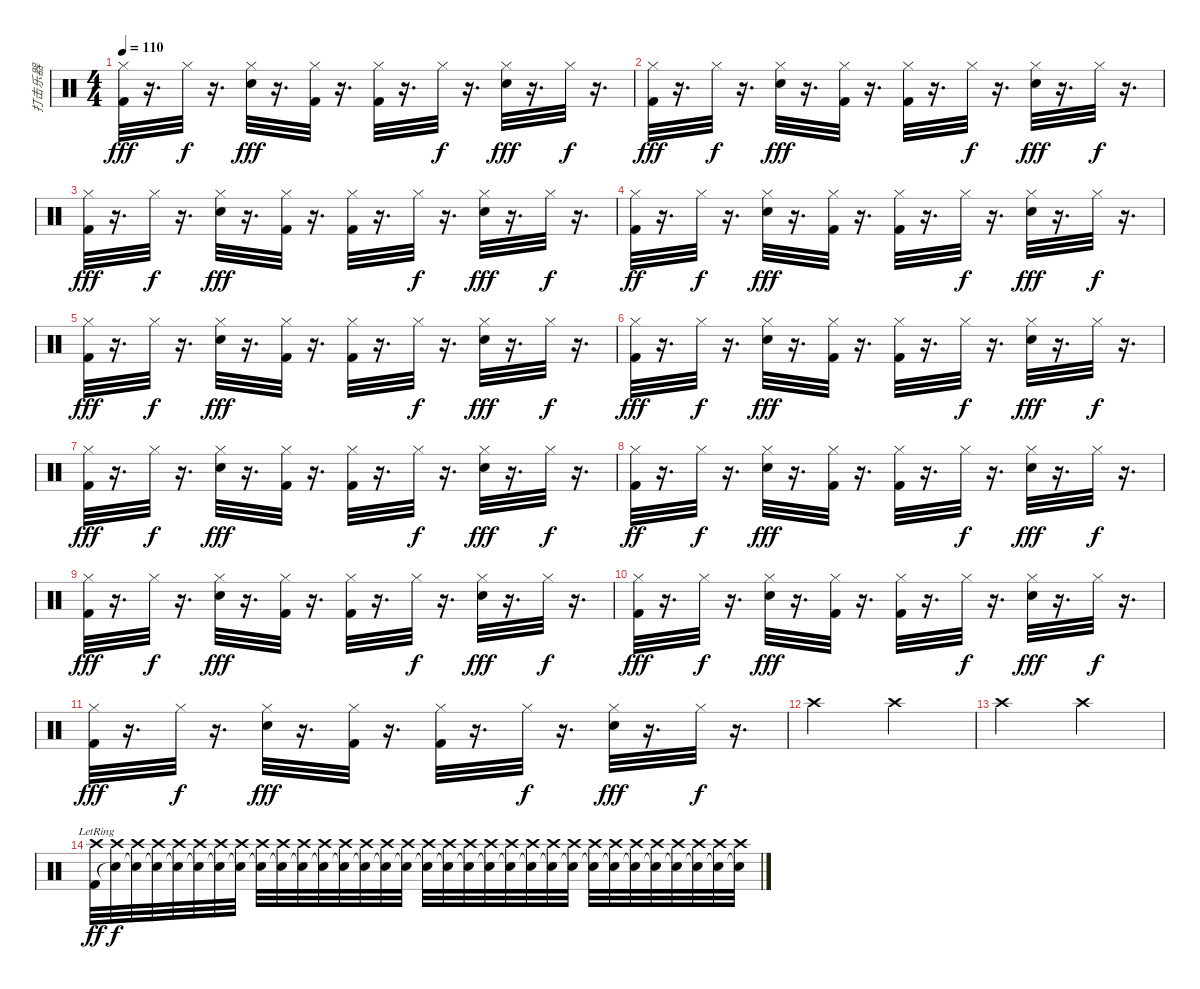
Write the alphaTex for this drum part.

\track ("打击乐器" "打击乐器") {instrument percussion}
\staff {score}
\articulation defaults
\ts (4 4)
\tempo 110
\clef neutral
\ks c
("Kick (hit) 2" "Hi-Hat (closed)").32{dy fff} r.16{d} "Hi-Hat (closed)".32{dy f} r.16{d} ("Hi-Hat (closed)" "Electric Snare (hit)").32{dy fff} r.16{d} ("Kick (hit) 2" "Hi-Hat (closed)").32 r.16{d} ("Kick (hit) 2" "Hi-Hat (closed)").32 r.16{d} "Hi-Hat (closed)".32{dy f} r.16{d} ("Hi-Hat (closed)" "Electric Snare (hit)").32{dy fff} r.16{d} "Hi-Hat (closed)".32{dy f} r.16{d} |
("Kick (hit) 2" "Hi-Hat (closed)").32{dy fff} r.16{d} "Hi-Hat (closed)".32{dy f} r.16{d} ("Hi-Hat (closed)" "Electric Snare (hit)").32{dy fff} r.16{d} ("Kick (hit) 2" "Hi-Hat (closed)").32 r.16{d} ("Kick (hit) 2" "Hi-Hat (closed)").32 r.16{d} "Hi-Hat (closed)".32{dy f} r.16{d} ("Hi-Hat (closed)" "Electric Snare (hit)").32{dy fff} r.16{d} "Hi-Hat (closed)".32{dy f} r.16{d} |
("Kick (hit) 2" "Hi-Hat (closed)").32{dy fff} r.16{d} "Hi-Hat (closed)".32{dy f} r.16{d} ("Hi-Hat (closed)" "Electric Snare (hit)").32{dy fff} r.16{d} ("Kick (hit) 2" "Hi-Hat (closed)").32 r.16{d} ("Kick (hit) 2" "Hi-Hat (closed)").32 r.16{d} "Hi-Hat (closed)".32{dy f} r.16{d} ("Hi-Hat (closed)" "Electric Snare (hit)").32{dy fff} r.16{d} "Hi-Hat (closed)".32{dy f} r.16{d} |
("Kick (hit) 2" "Hi-Hat (closed)").32{dy ff} r.16{d} "Hi-Hat (closed)".32{dy f} r.16{d} ("Hi-Hat (closed)" "Electric Snare (hit)").32{dy fff} r.16{d} ("Kick (hit) 2" "Hi-Hat (closed)").32 r.16{d} ("Kick (hit) 2" "Hi-Hat (closed)").32 r.16{d} "Hi-Hat (closed)".32{dy f} r.16{d} ("Hi-Hat (closed)" "Electric Snare (hit)").32{dy fff} r.16{d} "Hi-Hat (closed)".32{dy f} r.16{d} |
("Kick (hit) 2" "Hi-Hat (closed)").32{dy fff} r.16{d} "Hi-Hat (closed)".32{dy f} r.16{d} ("Hi-Hat (closed)" "Electric Snare (hit)").32{dy fff} r.16{d} ("Kick (hit) 2" "Hi-Hat (closed)").32 r.16{d} ("Kick (hit) 2" "Hi-Hat (closed)").32 r.16{d} "Hi-Hat (closed)".32{dy f} r.16{d} ("Hi-Hat (closed)" "Electric Snare (hit)").32{dy fff} r.16{d} "Hi-Hat (closed)".32{dy f} r.16{d} |
("Kick (hit) 2" "Hi-Hat (closed)").32{dy fff} r.16{d} "Hi-Hat (closed)".32{dy f} r.16{d} ("Hi-Hat (closed)" "Electric Snare (hit)").32{dy fff} r.16{d} ("Kick (hit) 2" "Hi-Hat (closed)").32 r.16{d} ("Kick (hit) 2" "Hi-Hat (closed)").32 r.16{d} "Hi-Hat (closed)".32{dy f} r.16{d} ("Hi-Hat (closed)" "Electric Snare (hit)").32{dy fff} r.16{d} "Hi-Hat (closed)".32{dy f} r.16{d} |
("Kick (hit) 2" "Hi-Hat (closed)").32{dy fff} r.16{d} "Hi-Hat (closed)".32{dy f} r.16{d} ("Hi-Hat (closed)" "Electric Snare (hit)").32{dy fff} r.16{d} ("Kick (hit) 2" "Hi-Hat (closed)").32 r.16{d} ("Kick (hit) 2" "Hi-Hat (closed)").32 r.16{d} "Hi-Hat (closed)".32{dy f} r.16{d} ("Hi-Hat (closed)" "Electric Snare (hit)").32{dy fff} r.16{d} "Hi-Hat (closed)".32{dy f} r.16{d} |
("Kick (hit) 2" "Hi-Hat (closed)").32{dy ff} r.16{d} "Hi-Hat (closed)".32{dy f} r.16{d} ("Hi-Hat (closed)" "Electric Snare (hit)").32{dy fff} r.16{d} ("Kick (hit) 2" "Hi-Hat (closed)").32 r.16{d} ("Kick (hit) 2" "Hi-Hat (closed)").32 r.16{d} "Hi-Hat (closed)".32{dy f} r.16{d} ("Hi-Hat (closed)" "Electric Snare (hit)").32{dy fff} r.16{d} "Hi-Hat (closed)".32{dy f} r.16{d} |
("Kick (hit) 2" "Hi-Hat (closed)").32{dy fff} r.16{d} "Hi-Hat (closed)".32{dy f} r.16{d} ("Hi-Hat (closed)" "Electric Snare (hit)").32{dy fff} r.16{d} ("Kick (hit) 2" "Hi-Hat (closed)").32 r.16{d} ("Kick (hit) 2" "Hi-Hat (closed)").32 r.16{d} "Hi-Hat (closed)".32{dy f} r.16{d} ("Hi-Hat (closed)" "Electric Snare (hit)").32{dy fff} r.16{d} "Hi-Hat (closed)".32{dy f} r.16{d} |
("Kick (hit) 2" "Hi-Hat (closed)").32{dy fff} r.16{d} "Hi-Hat (closed)".32{dy f} r.16{d} ("Hi-Hat (closed)" "Electric Snare (hit)").32{dy fff} r.16{d} ("Kick (hit) 2" "Hi-Hat (closed)").32 r.16{d} ("Kick (hit) 2" "Hi-Hat (closed)").32 r.16{d} "Hi-Hat (closed)".32{dy f} r.16{d} ("Hi-Hat (closed)" "Electric Snare (hit)").32{dy fff} r.16{d} "Hi-Hat (closed)".32{dy f} r.16{d} |
("Kick (hit) 2" "Hi-Hat (closed)").32{dy fff} r.16{d} "Hi-Hat (closed)".32{dy f} r.16{d} ("Hi-Hat (closed)" "Electric Snare (hit)").32{dy fff} r.16{d} ("Kick (hit) 2" "Hi-Hat (closed)").32 r.16{d} ("Kick (hit) 2" "Hi-Hat (closed)").32 r.16{d} "Hi-Hat (closed)".32{dy f} r.16{d} ("Hi-Hat (closed)" "Electric Snare (hit)").32{dy fff} r.16{d} "Hi-Hat (closed)".32{dy f} r.16{d} |
"Crash high (hit)".2 "Crash high (hit)".2 |
"Crash high (hit)".2 "Crash high (hit)".2 |
("Crash high (hit)"{lr} "Kick (hit) 2").32{dy ff volume 0} ("Crash high (hit)" "Snare (hit)"{t}).32{dy f} ("Crash high (hit)" "Snare (hit)"{t}).32 ("Crash high (hit)" "Snare (hit)"{t}).32 ("Crash high (hit)" "Snare (hit)"{t}).32 ("Crash high (hit)" "Snare (hit)"{t}).32 ("Crash high (hit)" "Snare (hit)"{t}).32 ("Crash high (hit)" "Snare (hit)"{t}).32 ("Crash high (hit)" "Snare (hit)"{t}).32 ("Crash high (hit)" "Snare (hit)"{t}).32 ("Crash high (hit)" "Snare (hit)"{t}).32 ("Crash high (hit)" "Snare (hit)"{t}).32 ("Crash high (hit)" "Snare (hit)"{t}).32 ("Crash high (hit)" "Snare (hit)"{t}).32 ("Crash high (hit)" "Snare (hit)"{t}).32 ("Crash high (hit)" "Snare (hit)"{t}).32 ("Crash high (hit)" "Snare (hit)"{t}).32 ("Crash high (hit)" "Snare (hit)"{t}).32 ("Crash high (hit)" "Snare (hit)"{t}).32 ("Crash high (hit)" "Snare (hit)"{t}).32 ("Crash high (hit)" "Snare (hit)"{t}).32 ("Crash high (hit)" "Snare (hit)"{t}).32 ("Crash high (hit)" "Snare (hit)"{t}).32 ("Crash high (hit)" "Snare (hit)"{t}).32 ("Crash high (hit)" "Snare (hit)"{t}).32 ("Crash high (hit)" "Snare (hit)"{t}).32 ("Crash high (hit)" "Snare (hit)"{t}).32 ("Crash high (hit)" "Snare (hit)"{t}).32 ("Crash high (hit)" "Snare (hit)"{t}).32 ("Crash high (hit)" "Snare (hit)"{t}).32 ("Crash high (hit)" "Snare (hit)"{t}).32 ("Crash high (hit)" "Snare (hit)"{t}).32
